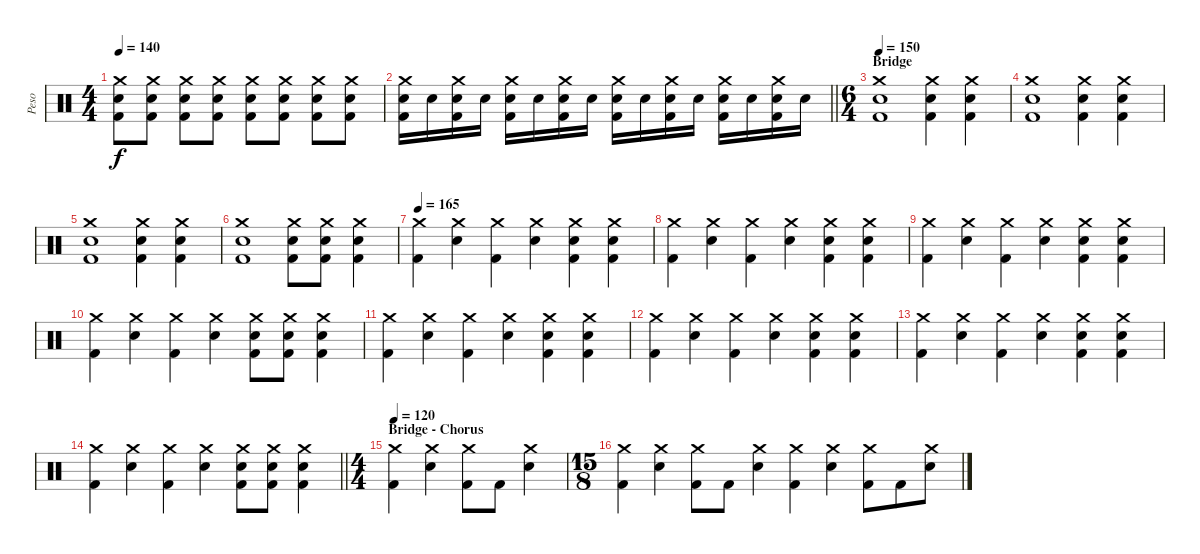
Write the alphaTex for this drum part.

\track ("Peso" "Peso") {instrument percussion}
\staff {score}
\articulation defaults
\ts (4 4)
\tempo 140
\clef neutral
\ks c
("Crash medium (hit)" "Electric Snare (hit)" "Kick (hit) 2").8{dy f} ("Crash medium (hit)" "Electric Snare (hit)" "Kick (hit) 2").8 ("Crash medium (hit)" "Electric Snare (hit)" "Kick (hit) 2").8 ("Crash medium (hit)" "Electric Snare (hit)" "Kick (hit) 2").8 ("Crash medium (hit)" "Electric Snare (hit)" "Kick (hit) 2").8 ("Crash medium (hit)" "Electric Snare (hit)" "Kick (hit) 2").8 ("Crash medium (hit)" "Electric Snare (hit)" "Kick (hit) 2").8 ("Crash medium (hit)" "Electric Snare (hit)" "Kick (hit) 2").8 |
\barLineRight lightlight
("Crash medium (hit)" "Electric Snare (hit)" "Kick (hit) 2").16 "Electric Snare (hit)".16 ("Crash medium (hit)" "Electric Snare (hit)" "Kick (hit) 2").16 "Electric Snare (hit)".16 ("Crash medium (hit)" "Electric Snare (hit)" "Kick (hit) 2").16 "Electric Snare (hit)".16 ("Crash medium (hit)" "Electric Snare (hit)" "Kick (hit) 2").16 "Electric Snare (hit)".16 ("Crash medium (hit)" "Electric Snare (hit)" "Kick (hit) 2").16 "Electric Snare (hit)".16 ("Crash medium (hit)" "Electric Snare (hit)" "Kick (hit) 2").16 "Electric Snare (hit)".16 ("Crash medium (hit)" "Electric Snare (hit)" "Kick (hit) 2").16 "Electric Snare (hit)".16 ("Crash medium (hit)" "Electric Snare (hit)" "Kick (hit) 2").16 "Electric Snare (hit)".16 |
\ts (6 4)
\section ("" "Bridge")
\tempo 150
("Crash medium (hit)" "Electric Snare (hit)" "Kick (hit) 2").1 ("Crash medium (hit)" "Electric Snare (hit)" "Kick (hit) 2").4 ("Crash medium (hit)" "Electric Snare (hit)" "Kick (hit) 2").4 |
("Crash medium (hit)" "Electric Snare (hit)" "Kick (hit) 2").1 ("Crash medium (hit)" "Electric Snare (hit)" "Kick (hit) 2").4 ("Crash medium (hit)" "Electric Snare (hit)" "Kick (hit) 2").4 |
("Crash medium (hit)" "Electric Snare (hit)" "Kick (hit) 2").1 ("Crash medium (hit)" "Electric Snare (hit)" "Kick (hit) 2").4 ("Crash medium (hit)" "Electric Snare (hit)" "Kick (hit) 2").4 |
("Crash medium (hit)" "Electric Snare (hit)" "Kick (hit) 2").1 ("Crash medium (hit)" "Electric Snare (hit)" "Kick (hit) 2").8 ("Crash medium (hit)" "Electric Snare (hit)" "Kick (hit) 2").8 ("Crash medium (hit)" "Electric Snare (hit)" "Kick (hit) 2").4 |
\tempo 165
("Crash medium (hit)" "Kick (hit) 2").4 ("Crash medium (hit)" "Electric Snare (hit)").4 ("Crash medium (hit)" "Kick (hit) 2").4 ("Crash medium (hit)" "Electric Snare (hit)").4 ("Crash medium (hit)" "Electric Snare (hit)" "Kick (hit) 2").4 ("Crash medium (hit)" "Electric Snare (hit)" "Kick (hit) 2").4 |
("Crash medium (hit)" "Kick (hit) 2").4 ("Crash medium (hit)" "Electric Snare (hit)").4 ("Crash medium (hit)" "Kick (hit) 2").4 ("Crash medium (hit)" "Electric Snare (hit)").4 ("Crash medium (hit)" "Electric Snare (hit)" "Kick (hit) 2").4 ("Crash medium (hit)" "Electric Snare (hit)" "Kick (hit) 2").4 |
("Crash medium (hit)" "Kick (hit) 2").4 ("Crash medium (hit)" "Electric Snare (hit)").4 ("Crash medium (hit)" "Kick (hit) 2").4 ("Crash medium (hit)" "Electric Snare (hit)").4 ("Crash medium (hit)" "Electric Snare (hit)" "Kick (hit) 2").4 ("Crash medium (hit)" "Electric Snare (hit)" "Kick (hit) 2").4 |
("Crash medium (hit)" "Kick (hit) 2").4 ("Crash medium (hit)" "Electric Snare (hit)").4 ("Crash medium (hit)" "Kick (hit) 2").4 ("Crash medium (hit)" "Electric Snare (hit)").4 ("Crash medium (hit)" "Electric Snare (hit)" "Kick (hit) 2").8 ("Crash medium (hit)" "Electric Snare (hit)" "Kick (hit) 2").8 ("Crash medium (hit)" "Electric Snare (hit)" "Kick (hit) 2").4 |
("Crash medium (hit)" "Kick (hit) 2").4 ("Crash medium (hit)" "Electric Snare (hit)").4 ("Crash medium (hit)" "Kick (hit) 2").4 ("Crash medium (hit)" "Electric Snare (hit)").4 ("Crash medium (hit)" "Electric Snare (hit)" "Kick (hit) 2").4 ("Crash medium (hit)" "Electric Snare (hit)" "Kick (hit) 2").4 |
("Crash medium (hit)" "Kick (hit) 2").4 ("Crash medium (hit)" "Electric Snare (hit)").4 ("Crash medium (hit)" "Kick (hit) 2").4 ("Crash medium (hit)" "Electric Snare (hit)").4 ("Crash medium (hit)" "Electric Snare (hit)" "Kick (hit) 2").4 ("Crash medium (hit)" "Electric Snare (hit)" "Kick (hit) 2").4 |
("Crash medium (hit)" "Kick (hit) 2").4 ("Crash medium (hit)" "Electric Snare (hit)").4 ("Crash medium (hit)" "Kick (hit) 2").4 ("Crash medium (hit)" "Electric Snare (hit)").4 ("Crash medium (hit)" "Electric Snare (hit)" "Kick (hit) 2").4 ("Crash medium (hit)" "Electric Snare (hit)" "Kick (hit) 2").4 |
\barLineRight lightlight
("Crash medium (hit)" "Kick (hit) 2").4 ("Crash medium (hit)" "Electric Snare (hit)").4 ("Crash medium (hit)" "Kick (hit) 2").4 ("Crash medium (hit)" "Electric Snare (hit)").4 ("Crash medium (hit)" "Electric Snare (hit)" "Kick (hit) 2").8 ("Crash medium (hit)" "Electric Snare (hit)" "Kick (hit) 2").8 ("Crash medium (hit)" "Electric Snare (hit)" "Kick (hit) 2").4 |
\ts (4 4)
\section ("" "Bridge - Chorus")
\tempo 120
("Crash medium (hit)" "Kick (hit) 2").4 ("Crash medium (hit)" "Electric Snare (hit)").4 ("Crash medium (hit)" "Kick (hit) 2").8 "Kick (hit) 2".8 ("Crash medium (hit)" "Electric Snare (hit)").4 |
\ts (15 8)
("Crash medium (hit)" "Kick (hit) 2").4 ("Crash medium (hit)" "Electric Snare (hit)").4 ("Crash medium (hit)" "Kick (hit) 2").8 "Kick (hit) 2".8 ("Crash medium (hit)" "Electric Snare (hit)").4 ("Crash medium (hit)" "Kick (hit) 2").4 ("Crash medium (hit)" "Electric Snare (hit)").4 ("Crash medium (hit)" "Kick (hit) 2").8 "Kick (hit) 2".8 ("Crash medium (hit)" "Electric Snare (hit)").8
